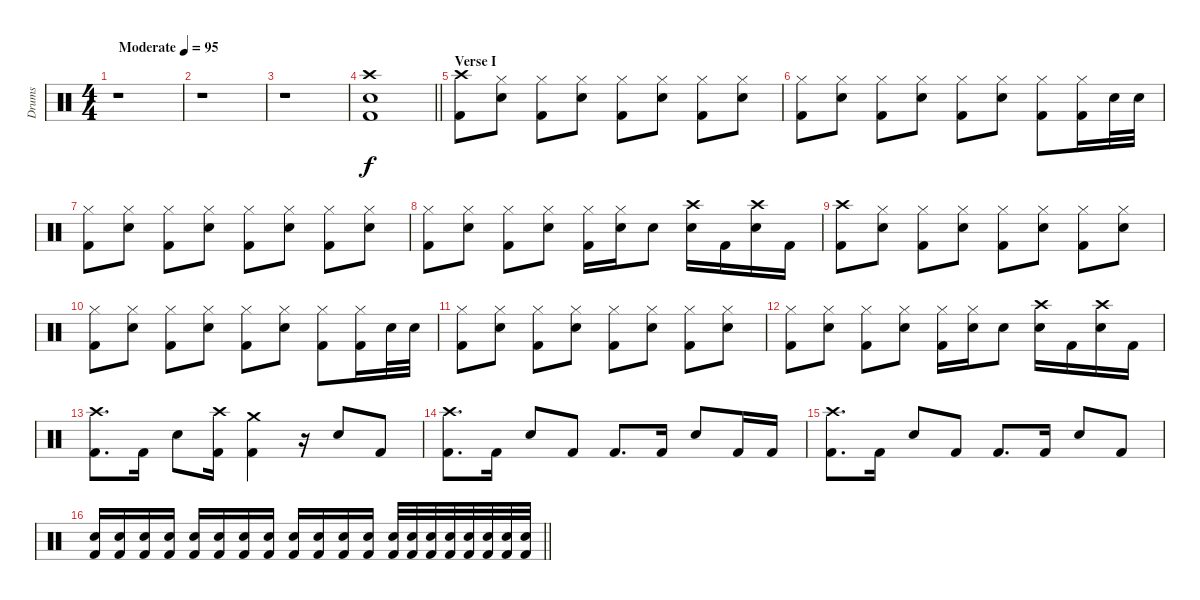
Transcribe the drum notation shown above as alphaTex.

\track ("Drums" "Drums") {instrument percussion}
\staff {score}
\articulation defaults
\ts (4 4)
\tempo (95 "Moderate")
\clef neutral
\ks c
r.1{dy f} |
r.1 |
r.1 |
\barLineRight lightlight
("Crash high (hit)" "Snare (hit) 2" "Kick (hit) 2").1 |
\section ("" "Verse I")
("Crash high (hit)" "Kick (hit) 2").8 ("Hi-Hat (closed)" "Snare (hit) 2").8 ("Hi-Hat (closed)" "Kick (hit) 2").8 ("Hi-Hat (closed)" "Snare (hit) 2").8 ("Hi-Hat (closed)" "Kick (hit) 2").8 ("Hi-Hat (closed)" "Snare (hit) 2").8 ("Hi-Hat (closed)" "Kick (hit) 2").8 ("Hi-Hat (closed)" "Snare (hit) 2").8 |
("Hi-Hat (closed)" "Kick (hit) 2").8 ("Hi-Hat (closed)" "Snare (hit) 2").8 ("Hi-Hat (closed)" "Kick (hit) 2").8 ("Hi-Hat (closed)" "Snare (hit) 2").8 ("Hi-Hat (closed)" "Kick (hit) 2").8 ("Hi-Hat (closed)" "Snare (hit) 2").8 ("Hi-Hat (closed)" "Kick (hit) 2").8 ("Hi-Hat (closed)" "Kick (hit) 2").16 "Snare (hit) 2".32 "Snare (hit) 2".32 |
("Hi-Hat (closed)" "Kick (hit) 2").8 ("Hi-Hat (closed)" "Snare (hit) 2").8 ("Hi-Hat (closed)" "Kick (hit) 2").8 ("Hi-Hat (closed)" "Snare (hit) 2").8 ("Hi-Hat (closed)" "Kick (hit) 2").8 ("Hi-Hat (closed)" "Snare (hit) 2").8 ("Hi-Hat (closed)" "Kick (hit) 2").8 ("Hi-Hat (closed)" "Snare (hit) 2").8 |
("Hi-Hat (closed)" "Kick (hit) 2").8 ("Hi-Hat (closed)" "Snare (hit) 2").8 ("Hi-Hat (closed)" "Kick (hit) 2").8 ("Hi-Hat (closed)" "Snare (hit) 2").8 ("Hi-Hat (closed)" "Kick (hit) 2").16 ("Hi-Hat (closed)" "Snare (hit) 2").16 "Snare (hit) 2".8 ("Crash high (hit)" "Snare (hit) 2").16 "Kick (hit) 2".16 ("Crash high (hit)" "Snare (hit) 2").16 "Kick (hit) 2".16 |
("Crash high (hit)" "Kick (hit) 2").8 ("Hi-Hat (closed)" "Snare (hit) 2").8 ("Hi-Hat (closed)" "Kick (hit) 2").8 ("Hi-Hat (closed)" "Snare (hit) 2").8 ("Hi-Hat (closed)" "Kick (hit) 2").8 ("Hi-Hat (closed)" "Snare (hit) 2").8 ("Hi-Hat (closed)" "Kick (hit) 2").8 ("Hi-Hat (closed)" "Snare (hit) 2").8 |
("Hi-Hat (closed)" "Kick (hit) 2").8 ("Hi-Hat (closed)" "Snare (hit) 2").8 ("Hi-Hat (closed)" "Kick (hit) 2").8 ("Hi-Hat (closed)" "Snare (hit) 2").8 ("Hi-Hat (closed)" "Kick (hit) 2").8 ("Hi-Hat (closed)" "Snare (hit) 2").8 ("Hi-Hat (closed)" "Kick (hit) 2").8 ("Hi-Hat (closed)" "Kick (hit) 2").16 "Snare (hit) 2".32 "Snare (hit) 2".32 |
("Hi-Hat (closed)" "Kick (hit) 2").8 ("Hi-Hat (closed)" "Snare (hit) 2").8 ("Hi-Hat (closed)" "Kick (hit) 2").8 ("Hi-Hat (closed)" "Snare (hit) 2").8 ("Hi-Hat (closed)" "Kick (hit) 2").8 ("Hi-Hat (closed)" "Snare (hit) 2").8 ("Hi-Hat (closed)" "Kick (hit) 2").8 ("Hi-Hat (closed)" "Snare (hit) 2").8 |
("Hi-Hat (closed)" "Kick (hit) 2").8 ("Hi-Hat (closed)" "Snare (hit) 2").8 ("Hi-Hat (closed)" "Kick (hit) 2").8 ("Hi-Hat (closed)" "Snare (hit) 2").8 ("Hi-Hat (closed)" "Kick (hit) 2").16 ("Hi-Hat (closed)" "Snare (hit) 2").16 "Snare (hit) 2".8 ("Crash high (hit)" "Snare (hit) 2").16 "Kick (hit) 2".16 ("Crash high (hit)" "Snare (hit) 2").16 "Kick (hit) 2".16 |
("Crash high (hit)" "Kick (hit) 2").8{d} "Kick (hit) 2".16 "Snare (hit) 2".8 ("Crash high (hit)" "Kick (hit) 2").16 ("Crash medium (hit)" "Kick (hit) 2").4 r.16 "Snare (hit) 2".8 "Kick (hit) 2".8 |
("Crash high (hit)" "Kick (hit) 2").8{d} "Kick (hit) 2".16 "Snare (hit) 2".8 "Kick (hit) 2".8 "Kick (hit) 2".8{d} "Kick (hit) 2".16 "Snare (hit) 2".8 "Kick (hit) 2".16 "Kick (hit) 2".16 |
("Crash high (hit)" "Kick (hit) 2").8{d} "Kick (hit) 2".16 "Snare (hit) 2".8 "Kick (hit) 2".8 "Kick (hit) 2".8{d} "Kick (hit) 2".16 "Snare (hit) 2".8 "Kick (hit) 2".8 |
\barLineRight lightlight
("Snare (hit) 2" "Kick (hit) 2").16 ("Snare (hit) 2" "Kick (hit) 2").16 ("Snare (hit) 2" "Kick (hit) 2").16 ("Snare (hit) 2" "Kick (hit) 2").16 ("Snare (hit) 2" "Kick (hit) 2").16 ("Snare (hit) 2" "Kick (hit) 2").16 ("Snare (hit) 2" "Kick (hit) 2").16 ("Snare (hit) 2" "Kick (hit) 2").16 ("Snare (hit) 2" "Kick (hit) 2").16 ("Snare (hit) 2" "Kick (hit) 2").16 ("Snare (hit) 2" "Kick (hit) 2").16 ("Snare (hit) 2" "Kick (hit) 2").16 ("Snare (hit) 2" "Kick (hit) 2").32 ("Snare (hit) 2" "Kick (hit) 2").32 ("Snare (hit) 2" "Kick (hit) 2").32 ("Snare (hit) 2" "Kick (hit) 2").32 ("Electric Snare (hit)" "Kick (hit) 2").32 ("Electric Snare (hit)" "Kick (hit) 2").32 ("Electric Snare (hit)" "Kick (hit) 2").32 ("Electric Snare (hit)" "Kick (hit) 2").32
